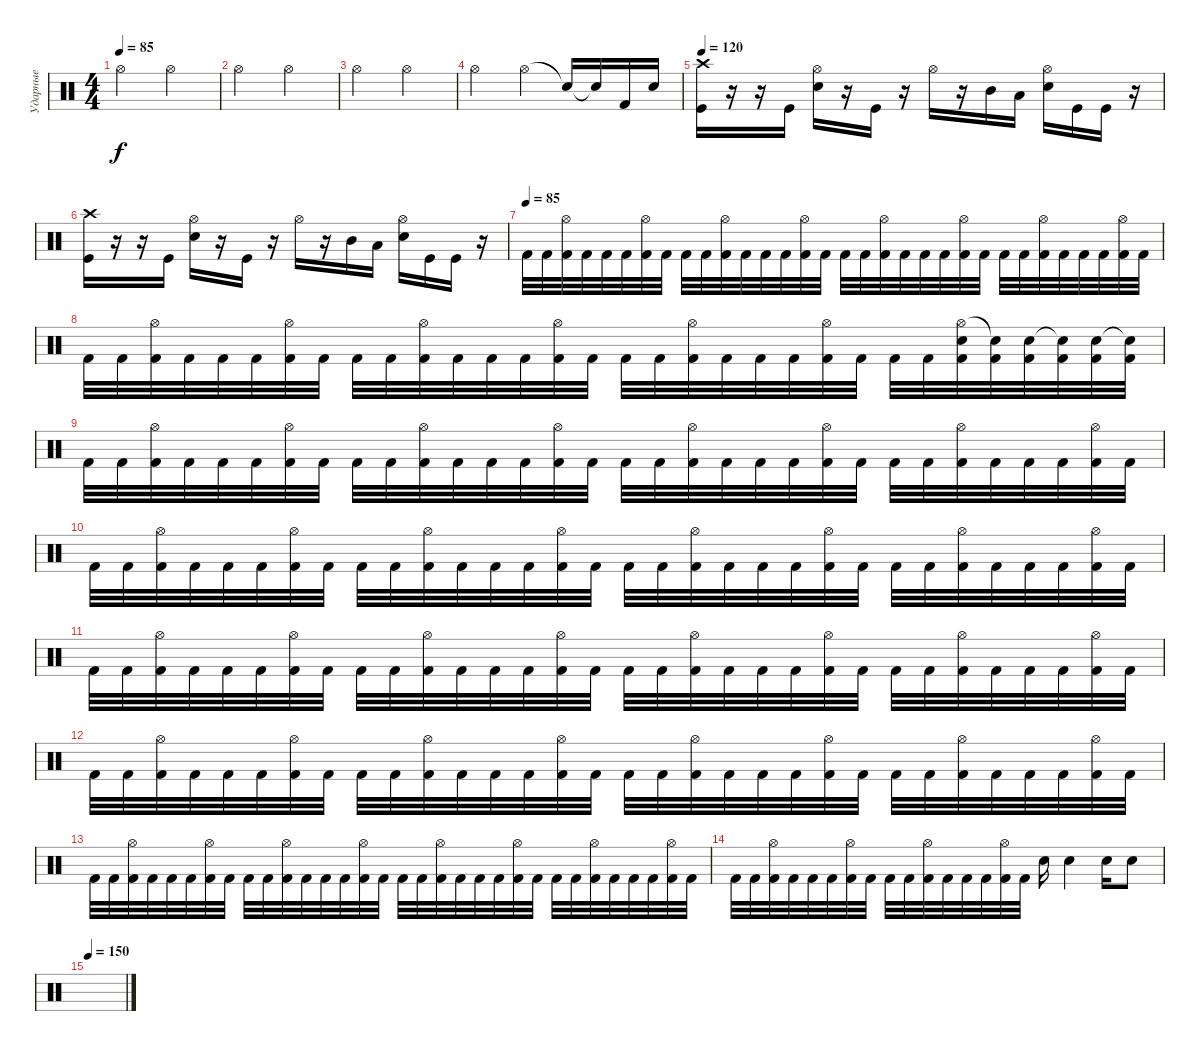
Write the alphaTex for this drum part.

\track ("Ударные" "Ударные") {instrument percussion}
\staff {score}
\articulation defaults
\ts (4 4)
\tempo 85
\clef neutral
\ks c "Hi-Hat (open)".2{dy f} "Hi-Hat (open)".2
|
"Hi-Hat (open)".2 "Hi-Hat (open)".2 |
"Hi-Hat (open)".2 "Hi-Hat (open)".2 |
"Hi-Hat (open)".2 "Hi-Hat (open)".4 "Snare (hit)"{t}.16 "Snare (hit)"{t}.16 "Kick (hit) 2".16 "Electric Snare (hit)".16 |
\tempo 120
("Crash high (hit)" "Kick (hit)").16 r.16 r.16 "Kick (hit)".16 ("Hi-Hat (open)" "Electric Snare (hit)").16 r.16 "Kick (hit)".16 r.16 "Hi-Hat (open)".16 r.16 "Mid Tom (hit)".16 "Low Tom (hit)".16 ("Hi-Hat (open)" "Electric Snare (hit)").16 "Kick (hit)".16 "Kick (hit)".16 r.16 |
("Crash high (hit)" "Kick (hit)").16 r.16 r.16 "Kick (hit)".16 ("Hi-Hat (open)" "Electric Snare (hit)").16 r.16 "Kick (hit)".16 r.16 "Hi-Hat (open)".16 r.16 "Mid Tom (hit)".16 "Low Tom (hit)".16 ("Hi-Hat (open)" "Electric Snare (hit)").16 "Kick (hit)".16 "Kick (hit)".16 r.16 |
\tempo (85)
"Kick (hit) 2".32 "Kick (hit) 2".32 ("Hi-Hat (open)" "Kick (hit) 2").32 "Kick (hit) 2".32 "Kick (hit) 2".32 "Kick (hit) 2".32 ("Hi-Hat (open)" "Kick (hit) 2").32 "Kick (hit) 2".32 "Kick (hit) 2".32 "Kick (hit) 2".32 ("Hi-Hat (open)" "Kick (hit) 2").32 "Kick (hit) 2".32 "Kick (hit) 2".32 "Kick (hit) 2".32 ("Hi-Hat (open)" "Kick (hit) 2").32 "Kick (hit) 2".32 "Kick (hit) 2".32 "Kick (hit) 2".32 ("Hi-Hat (open)" "Kick (hit) 2").32 "Kick (hit) 2".32 "Kick (hit) 2".32 "Kick (hit) 2".32 ("Hi-Hat (open)" "Kick (hit) 2").32 "Kick (hit) 2".32 "Kick (hit) 2".32 "Kick (hit) 2".32 ("Hi-Hat (open)" "Kick (hit) 2").32 "Kick (hit) 2".32 "Kick (hit) 2".32 "Kick (hit) 2".32 ("Hi-Hat (open)" "Kick (hit) 2").32 "Kick (hit) 2".32 |
"Kick (hit) 2".32 "Kick (hit) 2".32 ("Hi-Hat (open)" "Kick (hit) 2").32 "Kick (hit) 2".32 "Kick (hit) 2".32 "Kick (hit) 2".32 ("Hi-Hat (open)" "Kick (hit) 2").32 "Kick (hit) 2".32 "Kick (hit) 2".32 "Kick (hit) 2".32 ("Hi-Hat (open)" "Kick (hit) 2").32 "Kick (hit) 2".32 "Kick (hit) 2".32 "Kick (hit) 2".32 ("Hi-Hat (open)" "Kick (hit) 2").32 "Kick (hit) 2".32 "Kick (hit) 2".32 "Kick (hit) 2".32 ("Hi-Hat (open)" "Kick (hit) 2").32 "Kick (hit) 2".32 "Kick (hit) 2".32 "Kick (hit) 2".32 ("Hi-Hat (open)" "Kick (hit) 2").32 "Kick (hit) 2".32 "Kick (hit) 2".32 "Kick (hit) 2".32 ("Hi-Hat (open)" "Electric Snare (hit)" "Kick (hit) 2").32 ("Snare (hit)"{t} "Kick (hit) 2").32 ("Electric Snare (hit)" "Kick (hit) 2").32 ("Snare (hit)"{t} "Kick (hit) 2").32 ("Electric Snare (hit)" "Kick (hit) 2").32 ("Snare (hit)"{t} "Kick (hit) 2").32 |
"Kick (hit) 2".32 "Kick (hit) 2".32 ("Hi-Hat (open)" "Kick (hit) 2").32 "Kick (hit) 2".32 "Kick (hit) 2".32 "Kick (hit) 2".32 ("Hi-Hat (open)" "Kick (hit) 2").32 "Kick (hit) 2".32 "Kick (hit) 2".32 "Kick (hit) 2".32 ("Hi-Hat (open)" "Kick (hit) 2").32 "Kick (hit) 2".32 "Kick (hit) 2".32 "Kick (hit) 2".32 ("Hi-Hat (open)" "Kick (hit) 2").32 "Kick (hit) 2".32 "Kick (hit) 2".32 "Kick (hit) 2".32 ("Hi-Hat (open)" "Kick (hit) 2").32 "Kick (hit) 2".32 "Kick (hit) 2".32 "Kick (hit) 2".32 ("Hi-Hat (open)" "Kick (hit) 2").32 "Kick (hit) 2".32 "Kick (hit) 2".32 "Kick (hit) 2".32 ("Hi-Hat (open)" "Kick (hit) 2").32 "Kick (hit) 2".32 "Kick (hit) 2".32 "Kick (hit) 2".32 ("Hi-Hat (open)" "Kick (hit) 2").32 "Kick (hit) 2".32 |
"Kick (hit) 2".32 "Kick (hit) 2".32 ("Hi-Hat (open)" "Kick (hit) 2").32 "Kick (hit) 2".32 "Kick (hit) 2".32 "Kick (hit) 2".32 ("Hi-Hat (open)" "Kick (hit) 2").32 "Kick (hit) 2".32 "Kick (hit) 2".32 "Kick (hit) 2".32 ("Hi-Hat (open)" "Kick (hit) 2").32 "Kick (hit) 2".32 "Kick (hit) 2".32 "Kick (hit) 2".32 ("Hi-Hat (open)" "Kick (hit) 2").32 "Kick (hit) 2".32 "Kick (hit) 2".32 "Kick (hit) 2".32 ("Hi-Hat (open)" "Kick (hit) 2").32 "Kick (hit) 2".32 "Kick (hit) 2".32 "Kick (hit) 2".32 ("Hi-Hat (open)" "Kick (hit) 2").32 "Kick (hit) 2".32 "Kick (hit) 2".32 "Kick (hit) 2".32 ("Hi-Hat (open)" "Kick (hit) 2").32 "Kick (hit) 2".32 "Kick (hit) 2".32 "Kick (hit) 2".32 ("Hi-Hat (open)" "Kick (hit) 2").32 "Kick (hit) 2".32 |
"Kick (hit) 2".32 "Kick (hit) 2".32 ("Hi-Hat (open)" "Kick (hit) 2").32 "Kick (hit) 2".32 "Kick (hit) 2".32 "Kick (hit) 2".32 ("Hi-Hat (open)" "Kick (hit) 2").32 "Kick (hit) 2".32 "Kick (hit) 2".32 "Kick (hit) 2".32 ("Hi-Hat (open)" "Kick (hit) 2").32 "Kick (hit) 2".32 "Kick (hit) 2".32 "Kick (hit) 2".32 ("Hi-Hat (open)" "Kick (hit) 2").32 "Kick (hit) 2".32 "Kick (hit) 2".32 "Kick (hit) 2".32 ("Hi-Hat (open)" "Kick (hit) 2").32 "Kick (hit) 2".32 "Kick (hit) 2".32 "Kick (hit) 2".32 ("Hi-Hat (open)" "Kick (hit) 2").32 "Kick (hit) 2".32 "Kick (hit) 2".32 "Kick (hit) 2".32 ("Hi-Hat (open)" "Kick (hit) 2").32 "Kick (hit) 2".32 "Kick (hit) 2".32 "Kick (hit) 2".32 ("Hi-Hat (open)" "Kick (hit) 2").32 "Kick (hit) 2".32 |
"Kick (hit) 2".32 "Kick (hit) 2".32 ("Hi-Hat (open)" "Kick (hit) 2").32 "Kick (hit) 2".32 "Kick (hit) 2".32 "Kick (hit) 2".32 ("Hi-Hat (open)" "Kick (hit) 2").32 "Kick (hit) 2".32 "Kick (hit) 2".32 "Kick (hit) 2".32 ("Hi-Hat (open)" "Kick (hit) 2").32 "Kick (hit) 2".32 "Kick (hit) 2".32 "Kick (hit) 2".32 ("Hi-Hat (open)" "Kick (hit) 2").32 "Kick (hit) 2".32 "Kick (hit) 2".32 "Kick (hit) 2".32 ("Hi-Hat (open)" "Kick (hit) 2").32 "Kick (hit) 2".32 "Kick (hit) 2".32 "Kick (hit) 2".32 ("Hi-Hat (open)" "Kick (hit) 2").32 "Kick (hit) 2".32 "Kick (hit) 2".32 "Kick (hit) 2".32 ("Hi-Hat (open)" "Kick (hit) 2").32 "Kick (hit) 2".32 "Kick (hit) 2".32 "Kick (hit) 2".32 ("Hi-Hat (open)" "Kick (hit) 2").32 "Kick (hit) 2".32 |
"Kick (hit) 2".32 "Kick (hit) 2".32 ("Hi-Hat (open)" "Kick (hit) 2").32 "Kick (hit) 2".32 "Kick (hit) 2".32 "Kick (hit) 2".32 ("Hi-Hat (open)" "Kick (hit) 2").32 "Kick (hit) 2".32 "Kick (hit) 2".32 "Kick (hit) 2".32 ("Hi-Hat (open)" "Kick (hit) 2").32 "Kick (hit) 2".32 "Kick (hit) 2".32 "Kick (hit) 2".32 ("Hi-Hat (open)" "Kick (hit) 2").32 "Kick (hit) 2".32 "Kick (hit) 2".32 "Kick (hit) 2".32 ("Hi-Hat (open)" "Kick (hit) 2").32 "Kick (hit) 2".32 "Kick (hit) 2".32 "Kick (hit) 2".32 ("Hi-Hat (open)" "Kick (hit) 2").32 "Kick (hit) 2".32 "Kick (hit) 2".32 "Kick (hit) 2".32 ("Hi-Hat (open)" "Kick (hit) 2").32 "Kick (hit) 2".32 "Kick (hit) 2".32 "Kick (hit) 2".32 ("Hi-Hat (open)" "Kick (hit) 2").32 "Kick (hit) 2".32 |
"Kick (hit) 2".32 "Kick (hit) 2".32 ("Hi-Hat (open)" "Kick (hit) 2").32 "Kick (hit) 2".32 "Kick (hit) 2".32 "Kick (hit) 2".32 ("Hi-Hat (open)" "Kick (hit) 2").32 "Kick (hit) 2".32 "Kick (hit) 2".32 "Kick (hit) 2".32 ("Hi-Hat (open)" "Kick (hit) 2").32 "Kick (hit) 2".32 "Kick (hit) 2".32 "Kick (hit) 2".32 ("Hi-Hat (open)" "Kick (hit) 2").32 "Kick (hit) 2".32 "Electric Snare (hit)".16 "Electric Snare (hit)".4 "Electric Snare (hit)".16 "Electric Snare (hit)".8 |
\tempo 150
